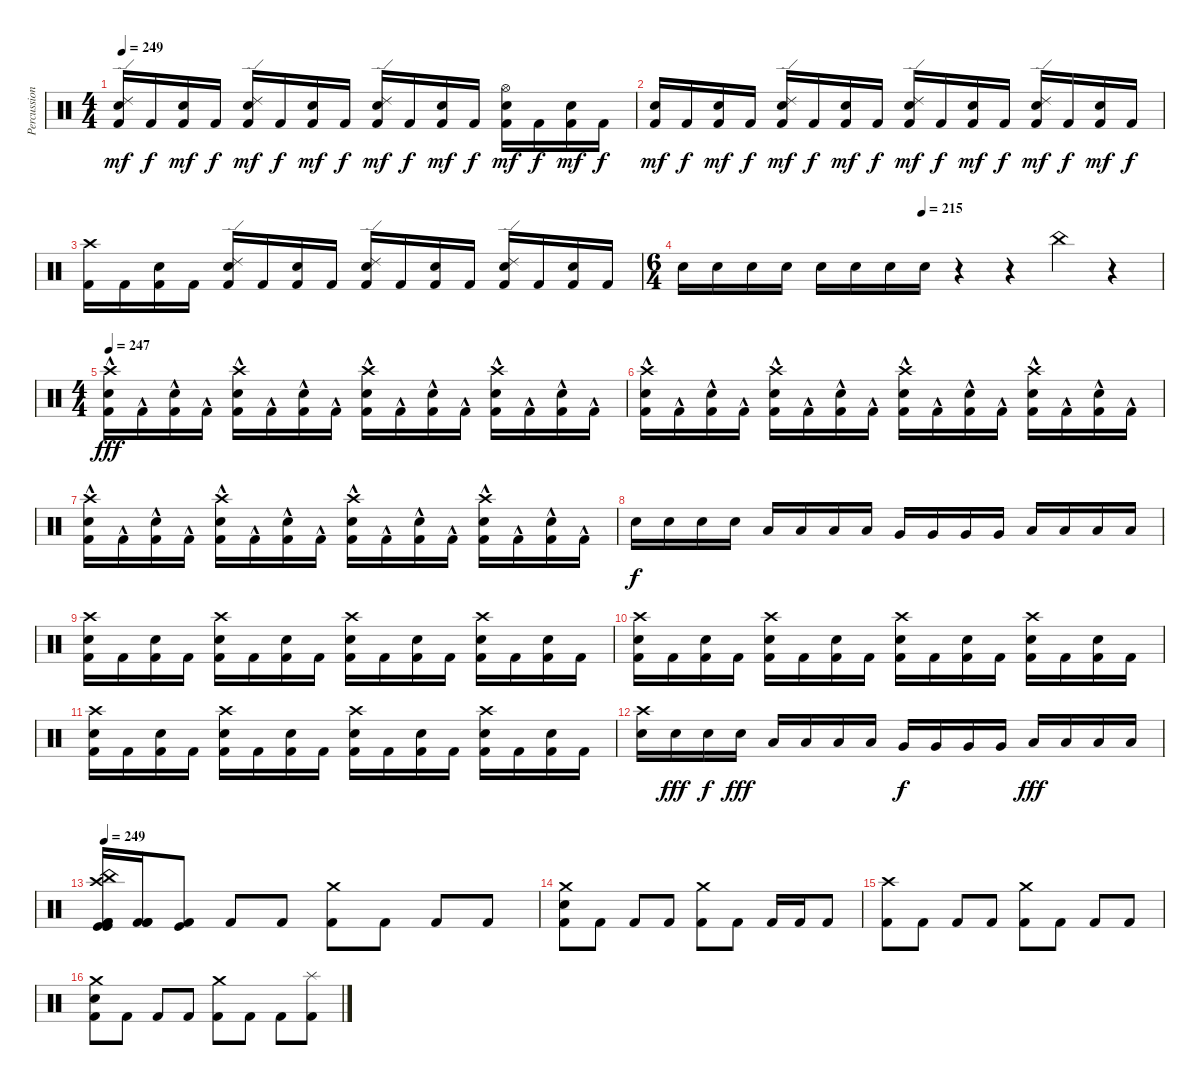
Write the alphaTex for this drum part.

\track ("Percussion" "Percussion") {instrument percussion}
\staff {score}
\articulation defaults
\ts (4 4)
\tempo 249
\clef neutral
\ks c
("Ride (edge) 2" "Electric Snare (hit)" "Kick (hit) 2").16{dy mf} "Kick (hit) 2".16{dy f} ("Electric Snare (hit)" "Kick (hit) 2").16{dy mf} "Kick (hit) 2".16{dy f} ("Ride (edge) 2" "Electric Snare (hit)" "Kick (hit) 2").16{dy mf} "Kick (hit) 2".16{dy f} ("Electric Snare (hit)" "Kick (hit) 2").16{dy mf} "Kick (hit) 2".16{dy f} ("Ride (edge) 2" "Electric Snare (hit)" "Kick (hit) 2").16{dy mf} "Kick (hit) 2".16{dy f} ("Electric Snare (hit)" "Kick (hit) 2").16{dy mf} "Kick (hit) 2".16{dy f} ("Hi-Hat (open)" "Electric Snare (hit)" "Kick (hit) 2").16{dy mf} "Kick (hit) 2".16{dy f} ("Electric Snare (hit)" "Kick (hit) 2").16{dy mf} "Kick (hit) 2".16{dy f} |
("Electric Snare (hit)" "Kick (hit) 2").16{dy mf} "Kick (hit) 2".16{dy f} ("Electric Snare (hit)" "Kick (hit) 2").16{dy mf} "Kick (hit) 2".16{dy f} ("Ride (edge) 2" "Electric Snare (hit)" "Kick (hit) 2").16{dy mf} "Kick (hit) 2".16{dy f} ("Electric Snare (hit)" "Kick (hit) 2").16{dy mf} "Kick (hit) 2".16{dy f} ("Ride (edge) 2" "Electric Snare (hit)" "Kick (hit) 2").16{dy mf} "Kick (hit) 2".16{dy f} ("Electric Snare (hit)" "Kick (hit) 2").16{dy mf} "Kick (hit) 2".16{dy f} ("Ride (edge) 2" "Electric Snare (hit)" "Kick (hit) 2").16{dy mf} "Kick (hit) 2".16{dy f} ("Electric Snare (hit)" "Kick (hit) 2").16{dy mf} "Kick (hit) 2".16{dy f} |
("Crash high (hit)" "Kick (hit) 2").16 "Kick (hit) 2".16 ("Electric Snare (hit)" "Kick (hit) 2").16 "Kick (hit) 2".16 ("Ride (edge) 2" "Electric Snare (hit)" "Kick (hit) 2").16 "Kick (hit) 2".16 ("Electric Snare (hit)" "Kick (hit) 2").16 "Kick (hit) 2".16 ("Ride (edge) 2" "Electric Snare (hit)" "Kick (hit) 2").16 "Kick (hit) 2".16 ("Electric Snare (hit)" "Kick (hit) 2").16 "Kick (hit) 2".16 ("Ride (edge) 2" "Electric Snare (hit)" "Kick (hit) 2").16 "Kick (hit) 2".16 ("Electric Snare (hit)" "Kick (hit) 2").16 "Kick (hit) 2".16 |
\ts (6 4)
\tempo (215 0.5)
"Electric Snare (hit)".16 "Electric Snare (hit)".16 "Electric Snare (hit)".16 "Electric Snare (hit)".16 "Electric Snare (hit)".16 "Electric Snare (hit)".16 "Electric Snare (hit)".16 "Electric Snare (hit)".16 r.4 r.4 "China (hit)".4 r.4 |
\ts (4 4)
\tempo 247
("Crash high (hit)" "Electric Snare (hit)" "Kick (hit) 2"{hac}).16{dy fff} "Kick (hit) 2"{hac}.16 ("Electric Snare (hit)" "Kick (hit) 2"{hac}).16 "Kick (hit) 2"{hac}.16 ("Crash high (hit)" "Electric Snare (hit)" "Kick (hit) 2"{hac}).16 "Kick (hit) 2"{hac}.16 ("Electric Snare (hit)" "Kick (hit) 2"{hac}).16 "Kick (hit) 2"{hac}.16 ("Crash high (hit)" "Electric Snare (hit)" "Kick (hit) 2"{hac}).16 "Kick (hit) 2"{hac}.16 ("Electric Snare (hit)" "Kick (hit) 2"{hac}).16 "Kick (hit) 2"{hac}.16 ("Crash high (hit)" "Electric Snare (hit)" "Kick (hit) 2"{hac}).16 "Kick (hit) 2"{hac}.16 ("Electric Snare (hit)" "Kick (hit) 2"{hac}).16 "Kick (hit) 2"{hac}.16 |
("Crash high (hit)" "Electric Snare (hit)" "Kick (hit) 2"{hac}).16 "Kick (hit) 2"{hac}.16 ("Electric Snare (hit)" "Kick (hit) 2"{hac}).16 "Kick (hit) 2"{hac}.16 ("Crash high (hit)" "Electric Snare (hit)" "Kick (hit) 2"{hac}).16 "Kick (hit) 2"{hac}.16 ("Electric Snare (hit)" "Kick (hit) 2"{hac}).16 "Kick (hit) 2"{hac}.16 ("Crash high (hit)" "Electric Snare (hit)" "Kick (hit) 2"{hac}).16 "Kick (hit) 2"{hac}.16 ("Electric Snare (hit)" "Kick (hit) 2"{hac}).16 "Kick (hit) 2"{hac}.16 ("Crash high (hit)" "Electric Snare (hit)" "Kick (hit) 2"{hac}).16 "Kick (hit) 2"{hac}.16 ("Electric Snare (hit)" "Kick (hit) 2"{hac}).16 "Kick (hit) 2"{hac}.16 |
("Crash high (hit)" "Electric Snare (hit)" "Kick (hit) 2"{hac}).16 "Kick (hit) 2"{hac}.16 ("Electric Snare (hit)" "Kick (hit) 2"{hac}).16 "Kick (hit) 2"{hac}.16 ("Crash high (hit)" "Electric Snare (hit)" "Kick (hit) 2"{hac}).16 "Kick (hit) 2"{hac}.16 ("Electric Snare (hit)" "Kick (hit) 2"{hac}).16 "Kick (hit) 2"{hac}.16 ("Crash high (hit)" "Electric Snare (hit)" "Kick (hit) 2"{hac}).16 "Kick (hit) 2"{hac}.16 ("Electric Snare (hit)" "Kick (hit) 2"{hac}).16 "Kick (hit) 2"{hac}.16 ("Crash high (hit)" "Electric Snare (hit)" "Kick (hit) 2"{hac}).16 "Kick (hit) 2"{hac}.16 ("Electric Snare (hit)" "Kick (hit) 2"{hac}).16 "Kick (hit) 2"{hac}.16 |
"Electric Snare (hit)".16{dy f} "Electric Snare (hit)".16 "Electric Snare (hit)".16 "Electric Snare (hit)".16 "Low Tom (hit)".16 "Low Tom (hit)".16 "Low Tom (hit)".16 "Low Tom (hit)".16 "Very Low Tom (hit)".16 "Very Low Tom (hit)".16 "Very Low Tom (hit)".16 "Very Low Tom (hit)".16 "Low Floor Tom (hit)".16 "Low Floor Tom (hit)".16 "Low Floor Tom (hit)".16 "Low Floor Tom (hit)".16 |
("Crash high (hit)" "Electric Snare (hit)" "Kick (hit) 2").16 "Kick (hit) 2".16 ("Electric Snare (hit)" "Kick (hit) 2").16 "Kick (hit) 2".16 ("Crash high (hit)" "Electric Snare (hit)" "Kick (hit) 2").16 "Kick (hit) 2".16 ("Electric Snare (hit)" "Kick (hit) 2").16 "Kick (hit) 2".16 ("Crash high (hit)" "Electric Snare (hit)" "Kick (hit) 2").16 "Kick (hit) 2".16 ("Electric Snare (hit)" "Kick (hit) 2").16 "Kick (hit) 2".16 ("Crash high (hit)" "Electric Snare (hit)" "Kick (hit) 2").16 "Kick (hit) 2".16 ("Electric Snare (hit)" "Kick (hit) 2").16 "Kick (hit) 2".16 |
("Crash high (hit)" "Electric Snare (hit)" "Kick (hit) 2").16 "Kick (hit) 2".16 ("Electric Snare (hit)" "Kick (hit) 2").16 "Kick (hit) 2".16 ("Crash high (hit)" "Electric Snare (hit)" "Kick (hit) 2").16 "Kick (hit) 2".16 ("Electric Snare (hit)" "Kick (hit) 2").16 "Kick (hit) 2".16 ("Crash high (hit)" "Electric Snare (hit)" "Kick (hit) 2").16 "Kick (hit) 2".16 ("Electric Snare (hit)" "Kick (hit) 2").16 "Kick (hit) 2".16 ("Crash high (hit)" "Electric Snare (hit)" "Kick (hit) 2").16 "Kick (hit) 2".16 ("Electric Snare (hit)" "Kick (hit) 2").16 "Kick (hit) 2".16 |
("Crash high (hit)" "Electric Snare (hit)" "Kick (hit) 2").16 "Kick (hit) 2".16 ("Electric Snare (hit)" "Kick (hit) 2").16 "Kick (hit) 2".16 ("Crash high (hit)" "Electric Snare (hit)" "Kick (hit) 2").16 "Kick (hit) 2".16 ("Electric Snare (hit)" "Kick (hit) 2").16 "Kick (hit) 2".16 ("Crash high (hit)" "Electric Snare (hit)" "Kick (hit) 2").16 "Kick (hit) 2".16 ("Electric Snare (hit)" "Kick (hit) 2").16 "Kick (hit) 2".16 ("Crash high (hit)" "Electric Snare (hit)" "Kick (hit) 2").16 "Kick (hit) 2".16 ("Electric Snare (hit)" "Kick (hit) 2").16 "Kick (hit) 2".16 |
("Crash high (hit)" "Electric Snare (hit)").16 "Electric Snare (hit)".16{dy fff} "Electric Snare (hit)".16{dy f} "Electric Snare (hit)".16{dy fff} "Low Tom (hit)".16 "Low Tom (hit)".16 "Low Tom (hit)".16 "Low Tom (hit)".16 "Very Low Tom (hit)".16{dy f} "Very Low Tom (hit)".16 "Very Low Tom (hit)".16 "Very Low Tom (hit)".16 "Low Floor Tom (hit)".16{dy fff} "Low Floor Tom (hit)".16 "Low Floor Tom (hit)".16 "Low Floor Tom (hit)".16 |
\tempo 249
("Crash high (hit)" "China (hit)" "Kick (hit)" "Kick (hit)" "Kick (hit) 2" "Kick (hit) 2").16 ("Kick (hit) 2" "Kick (hit) 2" "Kick (hit) 2").16 ("Kick (hit)" "Kick (hit) 2").8 "Kick (hit) 2".8 "Kick (hit) 2".8 ("Crash medium (hit)" "Kick (hit) 2").8 "Kick (hit) 2".8 "Kick (hit) 2".8 "Kick (hit) 2".8 |
("Crash medium (hit)" "Electric Snare (hit)" "Kick (hit) 2").8 "Kick (hit) 2".8 "Kick (hit) 2".8 "Kick (hit) 2".8 ("Crash medium (hit)" "Kick (hit) 2").8 "Kick (hit) 2".8 "Kick (hit) 2".16 "Kick (hit) 2".16 "Kick (hit) 2".8 |
("Crash high (hit)" "Kick (hit) 2").8 "Kick (hit) 2".8 "Kick (hit) 2".8 "Kick (hit) 2".8 ("Crash medium (hit)" "Kick (hit) 2").8 "Kick (hit) 2".8 "Kick (hit) 2".8 "Kick (hit) 2".8 |
("Crash medium (hit)" "Electric Snare (hit)" "Kick (hit) 2").8 "Kick (hit) 2".8 "Kick (hit) 2".8 "Kick (hit) 2".8 ("Crash medium (hit)" "Kick (hit) 2").8 "Kick (hit) 2".8 "Kick (hit) 2".8 ("Splash (hit)" "Kick (hit) 2").8
